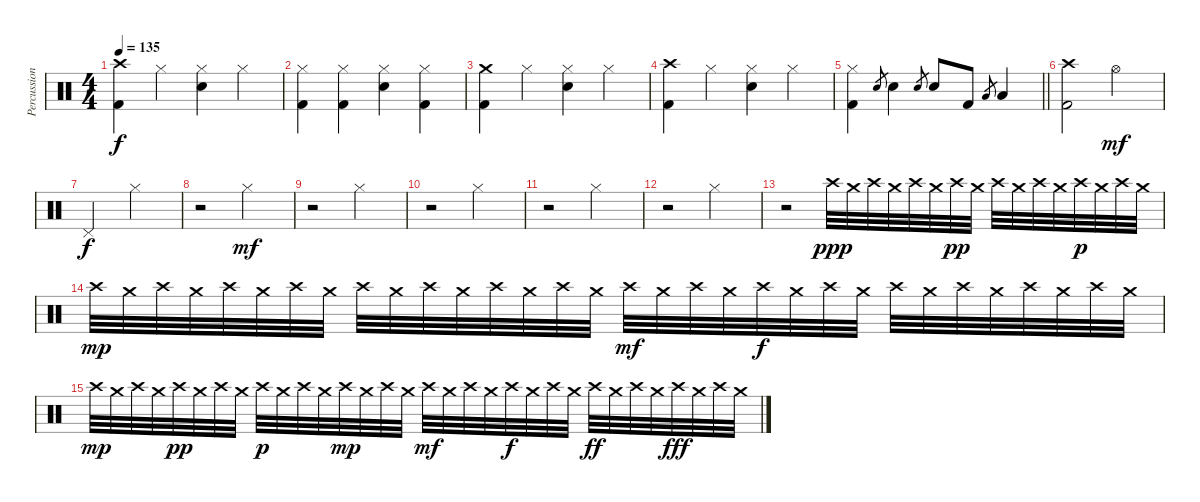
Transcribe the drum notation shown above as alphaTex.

\track ("Percussion" "Percussion") {instrument percussion}
\staff {score}
\articulation defaults
\ts (4 4)
\tempo 135
\clef neutral
\ks c
("Crash high (hit)" "Kick (hit) 2").4{dy f} "Hi-Hat (closed)".4 ("Hi-Hat (closed)" "Electric Snare (hit)").4 "Hi-Hat (closed)".4 |
("Hi-Hat (closed)" "Kick (hit) 2").4 ("Hi-Hat (closed)" "Kick (hit) 2").4 ("Hi-Hat (closed)" "Electric Snare (hit)").4 ("Hi-Hat (closed)" "Kick (hit) 2").4 |
("Crash medium (hit)" "Kick (hit) 2").4 "Hi-Hat (closed)".4 ("Hi-Hat (closed)" "Electric Snare (hit)").4 "Hi-Hat (closed)".4 |
("Crash high (hit)" "Kick (hit) 2").4 "Hi-Hat (closed)".4 ("Hi-Hat (closed)" "Electric Snare (hit)").4 "Hi-Hat (closed)".4 |
\barLineRight lightlight
("Hi-Hat (closed)" "Kick (hit) 2").4 "Electric Snare (hit)".8{gr} "Electric Snare (hit)".4 "Electric Snare (hit)".8{gr} "Electric Snare (hit)".8 "Kick (hit) 2".8 "Low Tom (hit)".8{gr} "Low Tom (hit)".4 |
("Crash high (hit)" "Kick (hit) 2").2 "Hi-Hat (open)".2{dy mf} |
"Pedal Hi-Hat (hit)".2{dy f} "Hi-Hat (closed)".2 |
r.2 "Hi-Hat (closed)".2{dy mf} |
r.2 "Hi-Hat (closed)".2 |
r.2 "Hi-Hat (closed)".2 |
r.2 "Hi-Hat (closed)".2 |
r.2 "Hi-Hat (closed)".2 |
r.2 "Crash high (hit)".32{dy ppp} "Crash medium (hit)".32 "Crash high (hit)".32 "Crash medium (hit)".32 "Crash high (hit)".32 "Crash medium (hit)".32 "Crash high (hit)".32{dy pp} "Crash medium (hit)".32 "Crash high (hit)".32 "Crash medium (hit)".32 "Crash high (hit)".32 "Crash medium (hit)".32 "Crash high (hit)".32{dy p} "Crash medium (hit)".32 "Crash high (hit)".32 "Crash medium (hit)".32 |
"Crash high (hit)".32{dy mp} "Crash medium (hit)".32 "Crash high (hit)".32 "Crash medium (hit)".32 "Crash high (hit)".32 "Crash medium (hit)".32 "Crash high (hit)".32 "Crash medium (hit)".32 "Crash high (hit)".32 "Crash medium (hit)".32 "Crash high (hit)".32 "Crash medium (hit)".32 "Crash high (hit)".32 "Crash medium (hit)".32 "Crash high (hit)".32 "Crash medium (hit)".32 "Crash high (hit)".32{dy mf} "Crash medium (hit)".32 "Crash high (hit)".32 "Crash medium (hit)".32 "Crash high (hit)".32{dy f} "Crash medium (hit)".32 "Crash high (hit)".32 "Crash medium (hit)".32 "Crash high (hit)".32 "Crash medium (hit)".32 "Crash high (hit)".32 "Crash medium (hit)".32 "Crash high (hit)".32 "Crash medium (hit)".32 "Crash high (hit)".32 "Crash medium (hit)".32 |
"Crash high (hit)".32{dy mp} "Crash medium (hit)".32 "Crash high (hit)".32 "Crash medium (hit)".32 "Crash high (hit)".32{dy pp} "Crash medium (hit)".32 "Crash high (hit)".32 "Crash medium (hit)".32 "Crash high (hit)".32{dy p} "Crash medium (hit)".32 "Crash high (hit)".32 "Crash medium (hit)".32 "Crash high (hit)".32{dy mp} "Crash medium (hit)".32 "Crash high (hit)".32 "Crash medium (hit)".32 "Crash high (hit)".32{dy mf} "Crash medium (hit)".32 "Crash high (hit)".32 "Crash medium (hit)".32 "Crash high (hit)".32{dy f} "Crash medium (hit)".32 "Crash high (hit)".32 "Crash medium (hit)".32 "Crash high (hit)".32{dy ff} "Crash medium (hit)".32 "Crash high (hit)".32 "Crash medium (hit)".32 "Crash high (hit)".32{dy fff} "Crash medium (hit)".32 "Crash high (hit)".32 "Crash medium (hit)".32
